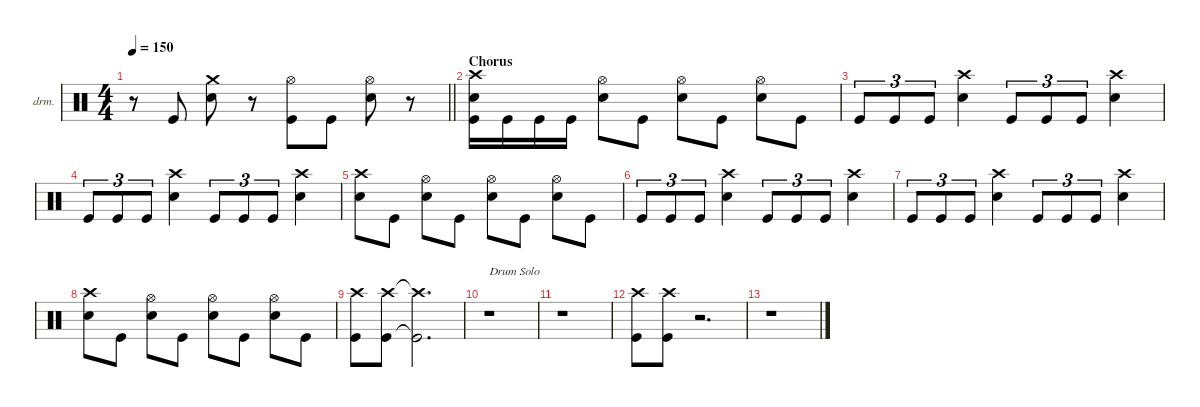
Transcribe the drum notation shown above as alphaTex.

\defaultSystemsLayout 4
\hideDynamics
\bracketExtendMode nobrackets
\firstSystemTrackNameOrientation horizontal
\otherSystemsTrackNameOrientation horizontal
\track ("Stix Zadinia" "drm.") {instrument percussion}
\staff {score}
\articulation defaults
\ts (4 4)
\tempo 150
\clef neutral
\barLineRight lightlight
\ks c
r.8{dy f} "Kick (hit)".8 ("Crash medium (hit)" "Snare (hit) 2").8 r.8 ("Hi-Hat (open)" "Kick (hit)").8 "Kick (hit)".8 ("Hi-Hat (open)" "Snare (hit) 2").8 r.8 |
\section ("" "Chorus")
("Crash high (hit)" "Snare (hit) 2" "Kick (hit)").16 "Kick (hit)".16 "Kick (hit)".16 "Kick (hit)".16 ("Hi-Hat (open)" "Snare (hit) 2").8 "Kick (hit)".8 ("Hi-Hat (open)" "Snare (hit) 2").8 "Kick (hit)".8 ("Hi-Hat (open)" "Snare (hit) 2").8 "Kick (hit)".8 |
"Kick (hit)".8{tu (3 2)} "Kick (hit)".8{tu (3 2)} "Kick (hit)".8{tu (3 2)} ("Crash high (hit)" "Snare (hit) 2").4 "Kick (hit)".8{tu (3 2)} "Kick (hit)".8{tu (3 2)} "Kick (hit)".8{tu (3 2)} ("Crash high (hit)" "Snare (hit) 2").4 |
"Kick (hit)".8{tu (3 2)} "Kick (hit)".8{tu (3 2)} "Kick (hit)".8{tu (3 2)} ("Crash high (hit)" "Snare (hit) 2").4 "Kick (hit)".8{tu (3 2)} "Kick (hit)".8{tu (3 2)} "Kick (hit)".8{tu (3 2)} ("Crash high (hit)" "Snare (hit) 2").4 |
("Crash high (hit)" "Snare (hit) 2").8 "Kick (hit)".8 ("Hi-Hat (open)" "Snare (hit) 2").8 "Kick (hit)".8 ("Hi-Hat (open)" "Snare (hit) 2").8 "Kick (hit)".8 ("Hi-Hat (open)" "Snare (hit) 2").8 "Kick (hit)".8 |
"Kick (hit)".8{tu (3 2)} "Kick (hit)".8{tu (3 2)} "Kick (hit)".8{tu (3 2)} ("Crash high (hit)" "Snare (hit) 2").4 "Kick (hit)".8{tu (3 2)} "Kick (hit)".8{tu (3 2)} "Kick (hit)".8{tu (3 2)} ("Crash high (hit)" "Snare (hit) 2").4 |
"Kick (hit)".8{tu (3 2)} "Kick (hit)".8{tu (3 2)} "Kick (hit)".8{tu (3 2)} ("Crash high (hit)" "Snare (hit) 2").4 "Kick (hit)".8{tu (3 2)} "Kick (hit)".8{tu (3 2)} "Kick (hit)".8{tu (3 2)} ("Crash high (hit)" "Snare (hit) 2").4 |
("Crash high (hit)" "Snare (hit) 2").8 "Kick (hit)".8 ("Hi-Hat (open)" "Snare (hit) 2").8 "Kick (hit)".8 ("Hi-Hat (open)" "Snare (hit) 2").8 "Kick (hit)".8 ("Hi-Hat (open)" "Snare (hit) 2").8 "Kick (hit)".8 |
\tempo (135 1 hide)
("Crash high (hit)" "Kick (hit)").8 ("Crash high (hit)" "Kick (hit)").8 ("Crash high (hit)"{t} "Kick (hit)"{t}).2{d} |
\tempo (140 hide)
r.1{txt "Drum Solo"} |
r.1 |
("Crash high (hit)" "Kick (hit)").8 ("Crash high (hit)" "Kick (hit)").8 r.2{d} |
r.1
